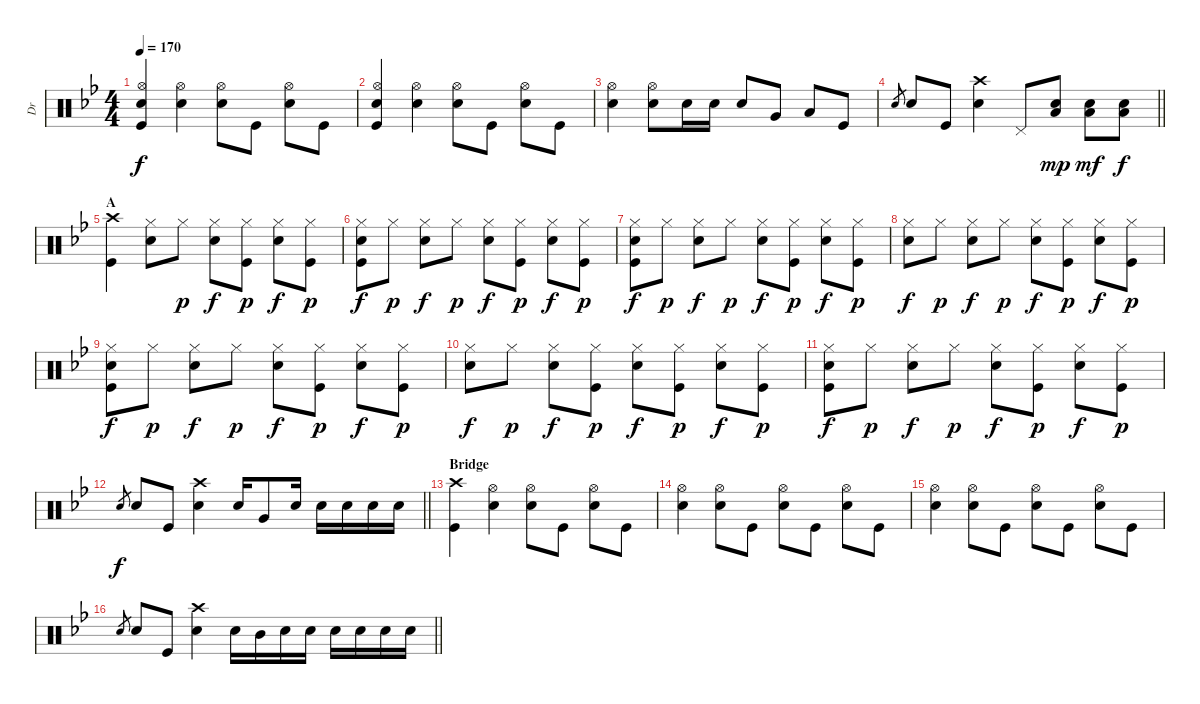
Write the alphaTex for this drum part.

\track ("Dr" "Dr") {instrument percussion}
\staff {score}
\articulation defaults
\ts (4 4)
\tempo 170
\clef neutral
\ks bb
("Electric Snare (hit)" "Hi-Hat (open)" "Kick (hit)").4{dy f} ("Electric Snare (hit)" "Hi-Hat (open)").4 ("Electric Snare (hit)" "Hi-Hat (open)").8 "Kick (hit)".8 ("Electric Snare (hit)" "Hi-Hat (open)").8 "Kick (hit)".8 |
("Electric Snare (hit)" "Hi-Hat (open)" "Kick (hit)").4 ("Electric Snare (hit)" "Hi-Hat (open)").4 ("Electric Snare (hit)" "Hi-Hat (open)").8 "Kick (hit)".8 ("Electric Snare (hit)" "Hi-Hat (open)").8 "Kick (hit)".8 |
("Hi-Hat (open)" "Electric Snare (hit)").4 ("Hi-Hat (open)" "Electric Snare (hit)").8 "Electric Snare (hit)".16 "Electric Snare (hit)".16 "Electric Snare (hit)".8 "Very Low Tom (hit)".8 "Low Floor Tom (hit)".8 "Kick (hit)".8 |
\barLineRight lightlight "Electric Snare (hit)".8{gr} "Electric Snare (hit)".8 "Kick (hit)".8
("Crash high (hit)" "Electric Snare (hit)").4 "Pedal Hi-Hat (hit)".8 ("Electric Snare (hit)" "Low Floor Tom (hit)").8{dy mp} ("Electric Snare (hit)" "Low Floor Tom (hit)").8{dy mf} ("Electric Snare (hit)" "Low Floor Tom (hit)").8{dy f} |
\section ("" "A")
("Crash high (hit)" "Kick (hit)").4 ("Hi-Hat (closed)" "Electric Snare (hit)").8 "Hi-Hat (closed)".8{dy p} ("Hi-Hat (closed)" "Electric Snare (hit)").8{dy f} ("Hi-Hat (closed)" "Kick (hit)").8{dy p} ("Hi-Hat (closed)" "Electric Snare (hit)").8{dy f} ("Hi-Hat (closed)" "Kick (hit)").8{dy p} |
("Hi-Hat (closed)" "Electric Snare (hit)" "Kick (hit)").8{dy f} "Hi-Hat (closed)".8{dy p} ("Hi-Hat (closed)" "Electric Snare (hit)").8{dy f} "Hi-Hat (closed)".8{dy p} ("Hi-Hat (closed)" "Electric Snare (hit)").8{dy f} ("Hi-Hat (closed)" "Kick (hit)").8{dy p} ("Hi-Hat (closed)" "Electric Snare (hit)").8{dy f} ("Hi-Hat (closed)" "Kick (hit)").8{dy p} |
("Hi-Hat (closed)" "Electric Snare (hit)" "Kick (hit)").8{dy f} "Hi-Hat (closed)".8{dy p} ("Hi-Hat (closed)" "Electric Snare (hit)").8{dy f} "Hi-Hat (closed)".8{dy p} ("Hi-Hat (closed)" "Electric Snare (hit)").8{dy f} ("Hi-Hat (closed)" "Kick (hit)").8{dy p} ("Hi-Hat (closed)" "Electric Snare (hit)").8{dy f} ("Hi-Hat (closed)" "Kick (hit)").8{dy p} |
("Hi-Hat (closed)" "Electric Snare (hit)").8{dy f} "Hi-Hat (closed)".8{dy p} ("Hi-Hat (closed)" "Electric Snare (hit)").8{dy f} "Hi-Hat (closed)".8{dy p} ("Hi-Hat (closed)" "Electric Snare (hit)").8{dy f} ("Hi-Hat (closed)" "Kick (hit)").8{dy p} ("Hi-Hat (closed)" "Electric Snare (hit)").8{dy f} ("Hi-Hat (closed)" "Kick (hit)").8{dy p} |
("Hi-Hat (closed)" "Electric Snare (hit)" "Kick (hit)").8{dy f} "Hi-Hat (closed)".8{dy p} ("Hi-Hat (closed)" "Electric Snare (hit)").8{dy f} "Hi-Hat (closed)".8{dy p} ("Hi-Hat (closed)" "Electric Snare (hit)").8{dy f} ("Hi-Hat (closed)" "Kick (hit)").8{dy p} ("Hi-Hat (closed)" "Electric Snare (hit)").8{dy f} ("Hi-Hat (closed)" "Kick (hit)").8{dy p} |
("Hi-Hat (closed)" "Electric Snare (hit)").8{dy f} "Hi-Hat (closed)".8{dy p} ("Hi-Hat (closed)" "Electric Snare (hit)").8{dy f} ("Hi-Hat (closed)" "Kick (hit)").8{dy p} ("Hi-Hat (closed)" "Electric Snare (hit)").8{dy f} ("Hi-Hat (closed)" "Kick (hit)").8{dy p} ("Hi-Hat (closed)" "Electric Snare (hit)").8{dy f} ("Hi-Hat (closed)" "Kick (hit)").8{dy p} |
("Hi-Hat (closed)" "Electric Snare (hit)" "Kick (hit)").8{dy f} "Hi-Hat (closed)".8{dy p} ("Hi-Hat (closed)" "Electric Snare (hit)").8{dy f} "Hi-Hat (closed)".8{dy p} ("Hi-Hat (closed)" "Electric Snare (hit)").8{dy f} ("Hi-Hat (closed)" "Kick (hit)").8{dy p} ("Hi-Hat (closed)" "Electric Snare (hit)").8{dy f} ("Hi-Hat (closed)" "Kick (hit)").8{dy p} |
\barLineRight lightlight "Electric Snare (hit)".8{gr dy f} "Electric Snare (hit)".8 "Kick (hit)".8
("Crash high (hit)" "Electric Snare (hit)").4 "Electric Snare (hit)".16 "Very Low Tom (hit)".8 "Electric Snare (hit)".16 "Electric Snare (hit)".16 "Electric Snare (hit)".16 "Electric Snare (hit)".16 "Electric Snare (hit)".16 |
\section ("" "Bridge")
("Crash high (hit)" "Kick (hit)").4 ("Electric Snare (hit)" "Hi-Hat (open)").4 ("Electric Snare (hit)" "Hi-Hat (open)").8 "Kick (hit)".8 ("Electric Snare (hit)" "Hi-Hat (open)").8 "Kick (hit)".8 |
("Electric Snare (hit)" "Hi-Hat (open)").4 ("Electric Snare (hit)" "Hi-Hat (open)").8 "Kick (hit)".8 ("Electric Snare (hit)" "Hi-Hat (open)").8 "Kick (hit)".8 ("Electric Snare (hit)" "Hi-Hat (open)").8 "Kick (hit)".8 |
("Electric Snare (hit)" "Hi-Hat (open)").4 ("Electric Snare (hit)" "Hi-Hat (open)").8 "Kick (hit)".8 ("Electric Snare (hit)" "Hi-Hat (open)").8 "Kick (hit)".8 ("Electric Snare (hit)" "Hi-Hat (open)").8 "Kick (hit)".8 |
\barLineRight lightlight "Electric Snare (hit)".8{gr} "Electric Snare (hit)".8 "Kick (hit)".8
("Crash high (hit)" "Electric Snare (hit)").4 "Electric Snare (hit)".16 "Mid Tom (hit)".16 "Electric Snare (hit)".16 "Electric Snare (hit)".16 "Electric Snare (hit)".16 "Electric Snare (hit)".16 "Electric Snare (hit)".16 "Electric Snare (hit)".16
